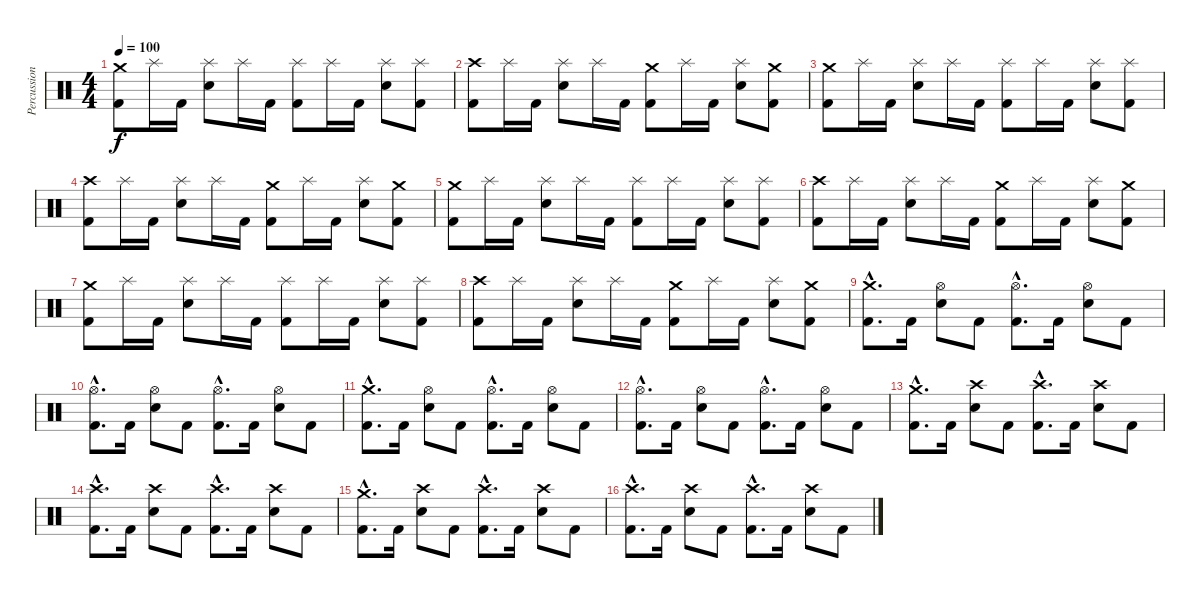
\track ("Percussion" "Percussion") {instrument percussion}
\staff {score}
\articulation defaults
\ts (4 4)
\tempo 100
\clef neutral
\ks c
("Crash medium (hit)" "Kick (hit) 2").8{dy f} "Splash (hit)".16 "Kick (hit) 2".16 ("Splash (hit)" "Electric Snare (hit)").8 "Splash (hit)".16 "Kick (hit) 2".16 ("Splash (hit)" "Kick (hit) 2").8 "Splash (hit)".16 "Kick (hit) 2".16 ("Splash (hit)" "Electric Snare (hit)").8 ("Splash (hit)" "Kick (hit) 2").8 |
("Crash high (hit)" "Kick (hit) 2").8 "Splash (hit)".16 "Kick (hit) 2".16 ("Splash (hit)" "Electric Snare (hit)").8 "Splash (hit)".16 "Kick (hit) 2".16 ("Crash medium (hit)" "Kick (hit) 2").8 "Splash (hit)".16 "Kick (hit) 2".16 ("Splash (hit)" "Electric Snare (hit)").8 ("Crash medium (hit)" "Kick (hit) 2").8 |
("Crash medium (hit)" "Kick (hit) 2").8 "Splash (hit)".16 "Kick (hit) 2".16 ("Splash (hit)" "Electric Snare (hit)").8 "Splash (hit)".16 "Kick (hit) 2".16 ("Splash (hit)" "Kick (hit) 2").8 "Splash (hit)".16 "Kick (hit) 2".16 ("Splash (hit)" "Electric Snare (hit)").8 ("Splash (hit)" "Kick (hit) 2").8 |
("Crash high (hit)" "Kick (hit) 2").8 "Splash (hit)".16 "Kick (hit) 2".16 ("Splash (hit)" "Electric Snare (hit)").8 "Splash (hit)".16 "Kick (hit) 2".16 ("Crash medium (hit)" "Kick (hit) 2").8 "Splash (hit)".16 "Kick (hit) 2".16 ("Splash (hit)" "Electric Snare (hit)").8 ("Crash medium (hit)" "Kick (hit) 2").8 |
("Crash medium (hit)" "Kick (hit) 2").8 "Splash (hit)".16 "Kick (hit) 2".16 ("Splash (hit)" "Electric Snare (hit)").8 "Splash (hit)".16 "Kick (hit) 2".16 ("Splash (hit)" "Kick (hit) 2").8 "Splash (hit)".16 "Kick (hit) 2".16 ("Splash (hit)" "Electric Snare (hit)").8 ("Splash (hit)" "Kick (hit) 2").8 |
("Crash high (hit)" "Kick (hit) 2").8 "Splash (hit)".16 "Kick (hit) 2".16 ("Splash (hit)" "Electric Snare (hit)").8 "Splash (hit)".16 "Kick (hit) 2".16 ("Crash medium (hit)" "Kick (hit) 2").8 "Splash (hit)".16 "Kick (hit) 2".16 ("Splash (hit)" "Electric Snare (hit)").8 ("Crash medium (hit)" "Kick (hit) 2").8 |
("Crash medium (hit)" "Kick (hit) 2").8 "Splash (hit)".16 "Kick (hit) 2".16 ("Splash (hit)" "Electric Snare (hit)").8 "Splash (hit)".16 "Kick (hit) 2".16 ("Splash (hit)" "Kick (hit) 2").8 "Splash (hit)".16 "Kick (hit) 2".16 ("Splash (hit)" "Electric Snare (hit)").8 ("Splash (hit)" "Kick (hit) 2").8 |
("Crash high (hit)" "Kick (hit) 2").8 "Splash (hit)".16 "Kick (hit) 2".16 ("Splash (hit)" "Electric Snare (hit)").8 "Splash (hit)".16 "Kick (hit) 2".16 ("Crash medium (hit)" "Kick (hit) 2").8 "Splash (hit)".16 "Kick (hit) 2".16 ("Splash (hit)" "Electric Snare (hit)").8 ("Crash medium (hit)" "Kick (hit) 2").8 |
("Crash medium (hit)"{hac} "Kick (hit) 2"{hac}).8{d} "Kick (hit) 2".16 ("Hi-Hat (open)" "Electric Snare (hit)").8 "Kick (hit) 2".8 ("Hi-Hat (open)"{hac} "Kick (hit) 2"{hac}).8{d} "Kick (hit) 2".16 ("Hi-Hat (open)" "Electric Snare (hit)").8 "Kick (hit) 2".8 |
("Hi-Hat (open)"{hac} "Kick (hit) 2"{hac}).8{d} "Kick (hit) 2".16 ("Hi-Hat (open)" "Electric Snare (hit)").8 "Kick (hit) 2".8 ("Hi-Hat (open)"{hac} "Kick (hit) 2"{hac}).8{d} "Kick (hit) 2".16 ("Hi-Hat (open)" "Electric Snare (hit)").8 "Kick (hit) 2".8 |
("Crash medium (hit)"{hac} "Kick (hit) 2"{hac}).8{d} "Kick (hit) 2".16 ("Hi-Hat (open)" "Electric Snare (hit)").8 "Kick (hit) 2".8 ("Hi-Hat (open)"{hac} "Kick (hit) 2"{hac}).8{d} "Kick (hit) 2".16 ("Hi-Hat (open)" "Electric Snare (hit)").8 "Kick (hit) 2".8 |
("Hi-Hat (open)"{hac} "Kick (hit) 2"{hac}).8{d} "Kick (hit) 2".16 ("Hi-Hat (open)" "Electric Snare (hit)").8 "Kick (hit) 2".8 ("Hi-Hat (open)"{hac} "Kick (hit) 2"{hac}).8{d} "Kick (hit) 2".16 ("Hi-Hat (open)" "Electric Snare (hit)").8 "Kick (hit) 2".8 |
("Crash medium (hit)"{hac} "Kick (hit) 2"{hac}).8{d} "Kick (hit) 2".16 ("Crash high (hit)" "Electric Snare (hit)").8 "Kick (hit) 2".8 ("Crash high (hit)"{hac} "Kick (hit) 2"{hac}).8{d} "Kick (hit) 2".16 ("Crash high (hit)" "Electric Snare (hit)").8 "Kick (hit) 2".8 |
("Crash high (hit)"{hac} "Kick (hit) 2"{hac}).8{d} "Kick (hit) 2".16 ("Crash high (hit)" "Electric Snare (hit)").8 "Kick (hit) 2".8 ("Crash high (hit)"{hac} "Kick (hit) 2"{hac}).8{d} "Kick (hit) 2".16 ("Crash high (hit)" "Electric Snare (hit)").8 "Kick (hit) 2".8 |
("Crash medium (hit)"{hac} "Kick (hit) 2"{hac}).8{d} "Kick (hit) 2".16 ("Crash high (hit)" "Electric Snare (hit)").8 "Kick (hit) 2".8 ("Crash high (hit)"{hac} "Kick (hit) 2"{hac}).8{d} "Kick (hit) 2".16 ("Crash high (hit)" "Electric Snare (hit)").8 "Kick (hit) 2".8 |
("Crash high (hit)"{hac} "Kick (hit) 2"{hac}).8{d} "Kick (hit) 2".16 ("Crash high (hit)" "Electric Snare (hit)").8 "Kick (hit) 2".8 ("Crash high (hit)"{hac} "Kick (hit) 2"{hac}).8{d} "Kick (hit) 2".16 ("Crash high (hit)" "Electric Snare (hit)").8 "Kick (hit) 2".8
